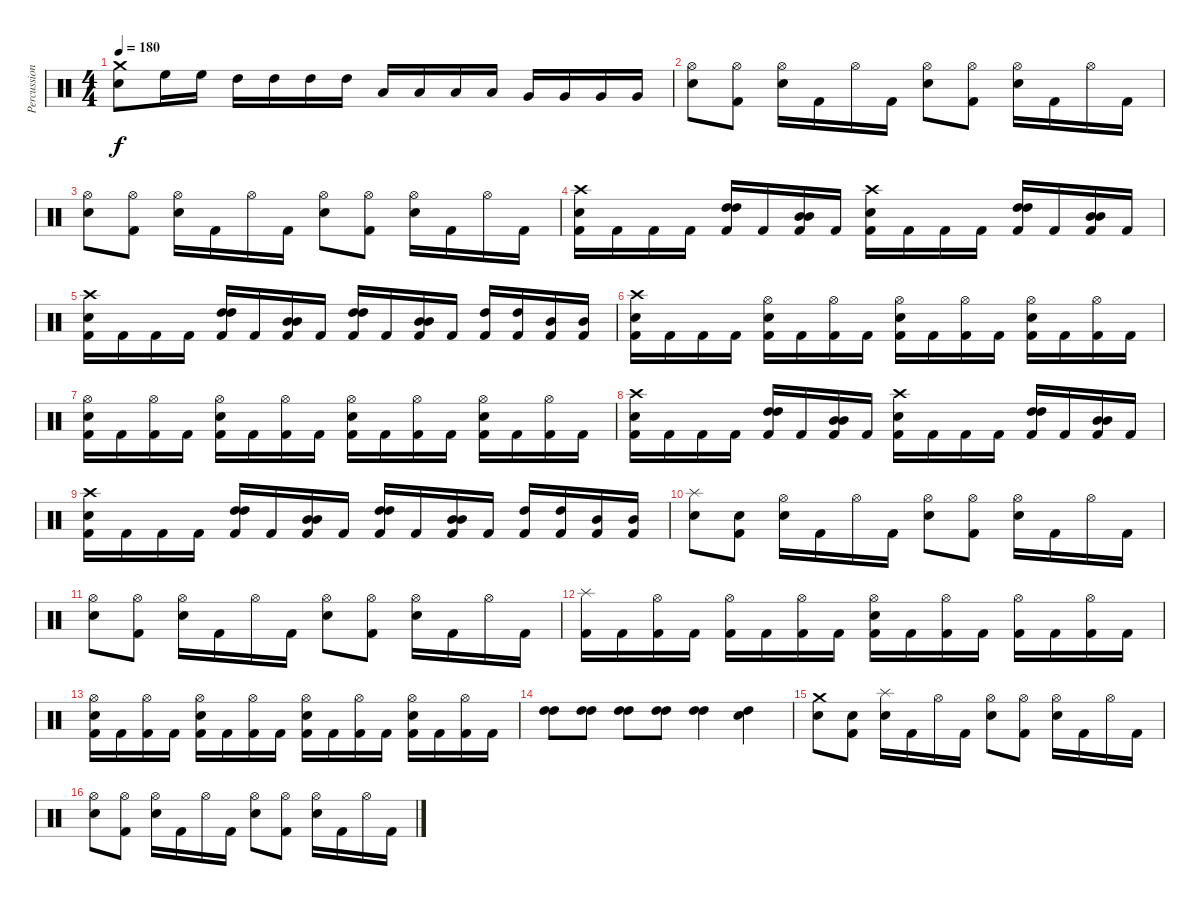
\track ("Percussion" "Percussion") {instrument percussion}
\staff {score}
\articulation defaults
\ts (4 4)
\tempo 180
\clef neutral
\ks c
("Crash medium (hit)" "Snare (hit) 2").8{dy f} "High Floor Tom (hit)".16 "High Floor Tom (hit)".16 "High Tom (hit)".16 "High Tom (hit)".16 "High Tom (hit)".16 "High Tom (hit)".16 "Low Tom (hit)".16 "Low Tom (hit)".16 "Low Tom (hit)".16 "Low Tom (hit)".16 "Very Low Tom (hit)".16 "Very Low Tom (hit)".16 "Very Low Tom (hit)".16 "Very Low Tom (hit)".16 |
("Hi-Hat (open)" "Snare (hit) 2").8 ("Hi-Hat (open)" "Kick (hit) 2").8 ("Hi-Hat (open)" "Snare (hit) 2").16 "Kick (hit) 2".16 "Hi-Hat (open)".16 "Kick (hit) 2".16 ("Hi-Hat (open)" "Snare (hit) 2").8 ("Hi-Hat (open)" "Kick (hit) 2").8 ("Hi-Hat (open)" "Snare (hit) 2").16 "Kick (hit) 2".16 "Hi-Hat (open)".16 "Kick (hit) 2".16 |
("Hi-Hat (open)" "Snare (hit) 2").8 ("Hi-Hat (open)" "Kick (hit) 2").8 ("Hi-Hat (open)" "Snare (hit) 2").16 "Kick (hit) 2".16 "Hi-Hat (open)".16 "Kick (hit) 2".16 ("Hi-Hat (open)" "Snare (hit) 2").8 ("Hi-Hat (open)" "Kick (hit) 2").8 ("Hi-Hat (open)" "Snare (hit) 2").16 "Kick (hit) 2".16 "Hi-Hat (open)".16 "Kick (hit) 2".16 |
("Crash high (hit)" "Snare (hit) 2" "Kick (hit) 2").16 "Kick (hit) 2".16 "Kick (hit) 2".16 "Kick (hit) 2".16 ("High Tom (hit)" "High Tom (hit)" "Kick (hit) 2").16 "Kick (hit) 2".16 ("Mid Tom (hit)" "Mid Tom (hit)" "Kick (hit) 2").16 "Kick (hit) 2".16 ("Crash high (hit)" "Snare (hit) 2" "Kick (hit) 2").16 "Kick (hit) 2".16 "Kick (hit) 2".16 "Kick (hit) 2".16 ("High Tom (hit)" "High Tom (hit)" "Kick (hit) 2").16 "Kick (hit) 2".16 ("Mid Tom (hit)" "Mid Tom (hit)" "Kick (hit) 2").16 "Kick (hit) 2".16 |
("Crash high (hit)" "Snare (hit) 2" "Kick (hit) 2").16 "Kick (hit) 2".16 "Kick (hit) 2".16 "Kick (hit) 2".16 ("High Tom (hit)" "High Tom (hit)" "Kick (hit) 2").16 "Kick (hit) 2".16 ("Mid Tom (hit)" "Mid Tom (hit)" "Kick (hit) 2").16 "Kick (hit) 2".16 ("High Tom (hit)" "High Tom (hit)" "Kick (hit) 2").16 "Kick (hit) 2".16 ("Mid Tom (hit)" "Mid Tom (hit)" "Kick (hit) 2").16 "Kick (hit) 2".16 ("High Tom (hit)" "Kick (hit) 2").16 ("High Tom (hit)" "Kick (hit) 2").16 ("Mid Tom (hit)" "Kick (hit) 2").16 ("Mid Tom (hit)" "Kick (hit) 2").16 |
("Crash high (hit)" "Snare (hit) 2" "Kick (hit) 2").16 "Kick (hit) 2".16 "Kick (hit) 2".16 "Kick (hit) 2".16 ("Hi-Hat (open)" "Snare (hit) 2" "Kick (hit) 2").16 "Kick (hit) 2".16 ("Hi-Hat (open)" "Kick (hit) 2").16 "Kick (hit) 2".16 ("Hi-Hat (open)" "Snare (hit) 2" "Kick (hit) 2").16 "Kick (hit) 2".16 ("Hi-Hat (open)" "Kick (hit) 2").16 "Kick (hit) 2".16 ("Hi-Hat (open)" "Snare (hit) 2" "Kick (hit) 2").16 "Kick (hit) 2".16 ("Hi-Hat (open)" "Kick (hit) 2").16 "Kick (hit) 2".16 |
("Hi-Hat (open)" "Snare (hit) 2" "Kick (hit) 2").16 "Kick (hit) 2".16 ("Hi-Hat (open)" "Kick (hit) 2").16 "Kick (hit) 2".16 ("Hi-Hat (open)" "Snare (hit) 2" "Kick (hit) 2").16 "Kick (hit) 2".16 ("Hi-Hat (open)" "Kick (hit) 2").16 "Kick (hit) 2".16 ("Hi-Hat (open)" "Snare (hit) 2" "Kick (hit) 2").16 "Kick (hit) 2".16 ("Hi-Hat (open)" "Kick (hit) 2").16 "Kick (hit) 2".16 ("Hi-Hat (open)" "Snare (hit) 2" "Kick (hit) 2").16 "Kick (hit) 2".16 ("Hi-Hat (open)" "Kick (hit) 2").16 "Kick (hit) 2".16 |
("Crash high (hit)" "Snare (hit) 2" "Kick (hit) 2").16 "Kick (hit) 2".16 "Kick (hit) 2".16 "Kick (hit) 2".16 ("High Tom (hit)" "High Tom (hit)" "Kick (hit) 2").16 "Kick (hit) 2".16 ("Mid Tom (hit)" "Mid Tom (hit)" "Kick (hit) 2").16 "Kick (hit) 2".16 ("Crash high (hit)" "Snare (hit) 2" "Kick (hit) 2").16 "Kick (hit) 2".16 "Kick (hit) 2".16 "Kick (hit) 2".16 ("High Tom (hit)" "High Tom (hit)" "Kick (hit) 2").16 "Kick (hit) 2".16 ("Mid Tom (hit)" "Mid Tom (hit)" "Kick (hit) 2").16 "Kick (hit) 2".16 |
("Crash high (hit)" "Snare (hit) 2" "Kick (hit) 2").16 "Kick (hit) 2".16 "Kick (hit) 2".16 "Kick (hit) 2".16 ("High Tom (hit)" "High Tom (hit)" "Kick (hit) 2").16 "Kick (hit) 2".16 ("Mid Tom (hit)" "Mid Tom (hit)" "Kick (hit) 2").16 "Kick (hit) 2".16 ("High Tom (hit)" "High Tom (hit)" "Kick (hit) 2").16 "Kick (hit) 2".16 ("Mid Tom (hit)" "Mid Tom (hit)" "Kick (hit) 2").16 "Kick (hit) 2".16 ("High Tom (hit)" "Kick (hit) 2").16 ("High Tom (hit)" "Kick (hit) 2").16 ("Mid Tom (hit)" "Kick (hit) 2").16 ("Mid Tom (hit)" "Kick (hit) 2").16 |
("Splash (hit)" "Snare (hit) 2").8 ("Snare (hit)" "Kick (hit) 2").8 ("Hi-Hat (open)" "Snare (hit) 2").16 "Kick (hit) 2".16 "Hi-Hat (open)".16 "Kick (hit) 2".16 ("Hi-Hat (open)" "Snare (hit) 2").8 ("Hi-Hat (open)" "Kick (hit) 2").8 ("Hi-Hat (open)" "Snare (hit) 2").16 "Kick (hit) 2".16 "Hi-Hat (open)".16 "Kick (hit) 2".16 |
("Hi-Hat (open)" "Snare (hit) 2").8 ("Hi-Hat (open)" "Kick (hit) 2").8 ("Hi-Hat (open)" "Snare (hit) 2").16 "Kick (hit) 2".16 "Hi-Hat (open)".16 "Kick (hit) 2".16 ("Hi-Hat (open)" "Snare (hit) 2").8 ("Hi-Hat (open)" "Kick (hit) 2").8 ("Hi-Hat (open)" "Snare (hit) 2").16 "Kick (hit) 2".16 "Hi-Hat (open)".16 "Kick (hit) 2".16 |
("Splash (hit)" "Kick (hit) 2").16 "Kick (hit) 2".16 ("Hi-Hat (open)" "Kick (hit) 2").16 "Kick (hit) 2".16 ("Hi-Hat (open)" "Kick (hit) 2").16 "Kick (hit) 2".16 ("Hi-Hat (open)" "Kick (hit) 2").16 "Kick (hit) 2".16 ("Hi-Hat (open)" "Snare (hit) 2" "Kick (hit) 2").16 "Kick (hit) 2".16 ("Hi-Hat (open)" "Kick (hit) 2").16 "Kick (hit) 2".16 ("Hi-Hat (open)" "Kick (hit) 2").16 "Kick (hit) 2".16 ("Hi-Hat (open)" "Kick (hit) 2").16 "Kick (hit) 2".16 |
("Hi-Hat (open)" "Snare (hit) 2" "Kick (hit) 2").16 "Kick (hit) 2".16 ("Hi-Hat (open)" "Kick (hit) 2").16 "Kick (hit) 2".16 ("Hi-Hat (open)" "Snare (hit) 2" "Kick (hit) 2").16 "Kick (hit) 2".16 ("Hi-Hat (open)" "Kick (hit) 2").16 "Kick (hit) 2".16 ("Hi-Hat (open)" "Snare (hit) 2" "Kick (hit) 2").16 "Kick (hit) 2".16 ("Hi-Hat (open)" "Kick (hit) 2").16 "Kick (hit) 2".16 ("Hi-Hat (open)" "Snare (hit) 2" "Kick (hit) 2").16 "Kick (hit) 2".16 ("Hi-Hat (open)" "Kick (hit) 2").16 "Kick (hit) 2".16 |
("High Tom (hit)" "High Tom (hit)").8 ("High Tom (hit)" "High Tom (hit)").8 ("High Tom (hit)" "High Tom (hit)").8 ("High Tom (hit)" "High Tom (hit)").8 ("High Tom (hit)" "High Tom (hit)").4 ("High Tom (hit)" "Snare (hit) 2").4 |
("Crash medium (hit)" "Snare (hit) 2").8 ("Snare (hit)" "Kick (hit) 2").8 ("Splash (hit)" "Snare (hit) 2").16 "Kick (hit) 2".16 "Hi-Hat (open)".16 "Kick (hit) 2".16 ("Hi-Hat (open)" "Snare (hit) 2").8 ("Hi-Hat (open)" "Kick (hit) 2").8 ("Hi-Hat (open)" "Snare (hit) 2").16 "Kick (hit) 2".16 "Hi-Hat (open)".16 "Kick (hit) 2".16 |
("Hi-Hat (open)" "Snare (hit) 2").8 ("Hi-Hat (open)" "Kick (hit) 2").8 ("Hi-Hat (open)" "Snare (hit) 2").16 "Kick (hit) 2".16 "Hi-Hat (open)".16 "Kick (hit) 2".16 ("Hi-Hat (open)" "Snare (hit) 2").8 ("Hi-Hat (open)" "Kick (hit) 2").8 ("Hi-Hat (open)" "Snare (hit) 2").16 "Kick (hit) 2".16 "Hi-Hat (open)".16 "Kick (hit) 2".16
